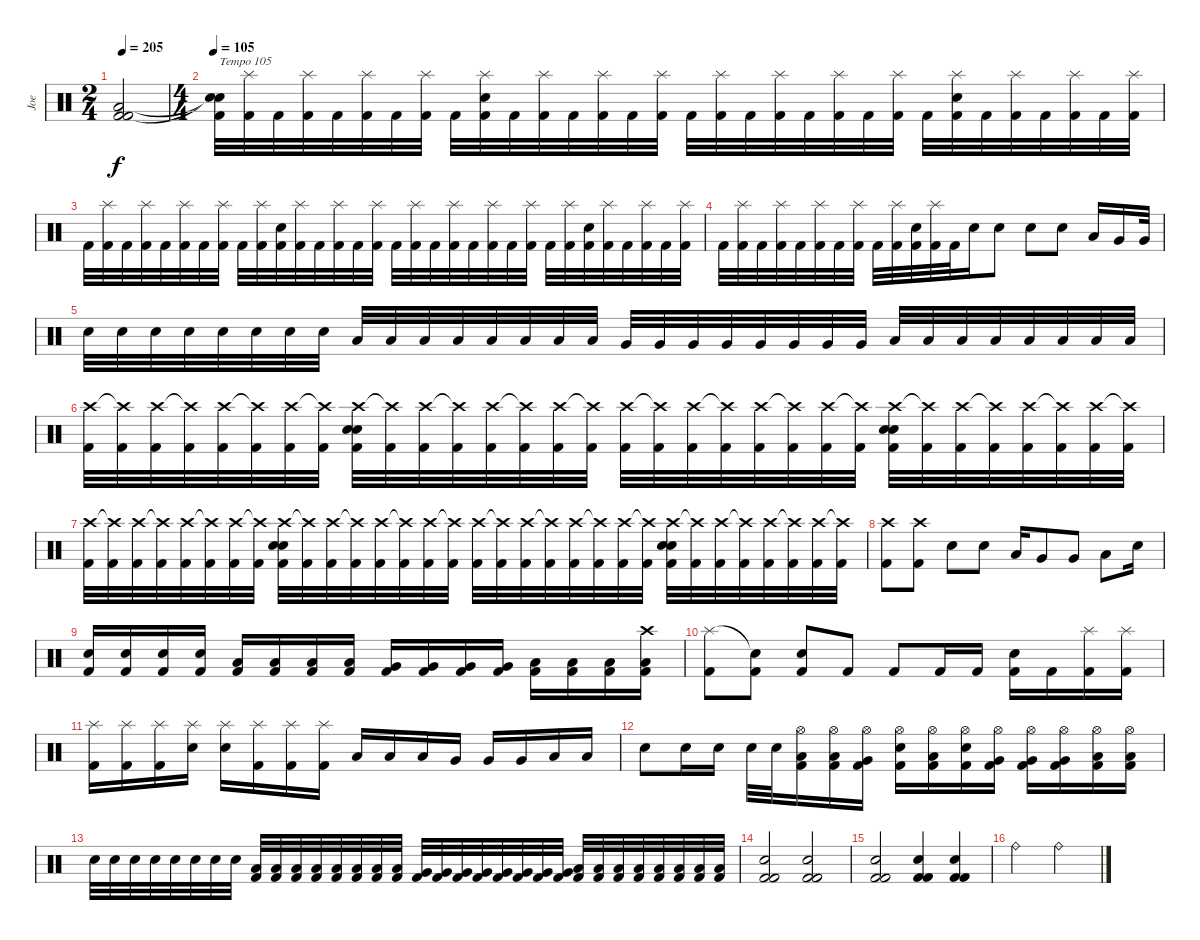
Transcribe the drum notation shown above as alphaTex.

\track ("Joe" "Joe") {instrument percussion}
\staff {score}
\articulation defaults
\ts (2 4)
\tempo 205
\clef neutral
\ks c
("Kick (hit) 2" "Kick (hit) 2" "Low Floor Tom (hit)").2{dy f} |
\ts (4 4)
\tempo 105
("Kick (hit) 2" "Snare (hit)"{t} "Snare (hit)"{t}).32{txt "Tempo 105"} ("Kick (hit) 2" "Splash (hit)").32 "Kick (hit) 2".32 ("Kick (hit) 2" "Splash (hit)").32 "Kick (hit) 2".32 ("Kick (hit) 2" "Splash (hit)").32 "Kick (hit) 2".32 ("Kick (hit) 2" "Splash (hit)").32 "Kick (hit) 2".32 ("Kick (hit) 2" "Splash (hit)" "Electric Snare (hit)").32 "Kick (hit) 2".32 ("Kick (hit) 2" "Splash (hit)").32 "Kick (hit) 2".32 ("Kick (hit) 2" "Splash (hit)").32 "Kick (hit) 2".32 ("Kick (hit) 2" "Splash (hit)").32 "Kick (hit) 2".32 ("Kick (hit) 2" "Splash (hit)").32 "Kick (hit) 2".32 ("Kick (hit) 2" "Splash (hit)").32 "Kick (hit) 2".32 ("Kick (hit) 2" "Splash (hit)").32 "Kick (hit) 2".32 ("Kick (hit) 2" "Splash (hit)").32 "Kick (hit) 2".32 ("Kick (hit) 2" "Splash (hit)" "Electric Snare (hit)").32 "Kick (hit) 2".32 ("Kick (hit) 2" "Splash (hit)").32 "Kick (hit) 2".32 ("Kick (hit) 2" "Splash (hit)").32 "Kick (hit) 2".32 ("Kick (hit) 2" "Splash (hit)").32 |
"Kick (hit) 2".32 ("Kick (hit) 2" "Splash (hit)").32 "Kick (hit) 2".32 ("Kick (hit) 2" "Splash (hit)").32 "Kick (hit) 2".32 ("Kick (hit) 2" "Splash (hit)").32 "Kick (hit) 2".32 ("Kick (hit) 2" "Splash (hit)").32 "Kick (hit) 2".32 ("Kick (hit) 2" "Splash (hit)").32 ("Kick (hit) 2" "Electric Snare (hit)").32 ("Kick (hit) 2" "Splash (hit)").32 "Kick (hit) 2".32 ("Kick (hit) 2" "Splash (hit)").32 "Kick (hit) 2".32 ("Kick (hit) 2" "Splash (hit)").32 "Kick (hit) 2".32 ("Kick (hit) 2" "Splash (hit)").32 "Kick (hit) 2".32 ("Kick (hit) 2" "Splash (hit)").32 "Kick (hit) 2".32 ("Kick (hit) 2" "Splash (hit)").32 "Kick (hit) 2".32 ("Kick (hit) 2" "Splash (hit)").32 "Kick (hit) 2".32 ("Kick (hit) 2" "Splash (hit)").32 ("Kick (hit) 2" "Electric Snare (hit)").32 ("Kick (hit) 2" "Splash (hit)").32 "Kick (hit) 2".32 ("Kick (hit) 2" "Splash (hit)").32 "Kick (hit) 2".32 ("Kick (hit) 2" "Splash (hit)").32 |
"Kick (hit) 2".32 ("Kick (hit) 2" "Splash (hit)").32 "Kick (hit) 2".32 ("Kick (hit) 2" "Splash (hit)").32 "Kick (hit) 2".32 ("Kick (hit) 2" "Splash (hit)").32 "Kick (hit) 2".32 ("Kick (hit) 2" "Splash (hit)").32 "Kick (hit) 2".32 ("Kick (hit) 2" "Splash (hit)").32 ("Kick (hit) 2" "Electric Snare (hit)").32 ("Kick (hit) 2" "Splash (hit)").32 "Kick (hit) 2".32 "Electric Snare (hit)".16 "Electric Snare (hit)".8 "Electric Snare (hit)".8 "Electric Snare (hit)".8 "Low Floor Tom (hit)".16 "Very Low Tom (hit)".16 "Very Low Tom (hit)".32 |
"Electric Snare (hit)".32 "Electric Snare (hit)".32 "Electric Snare (hit)".32 "Electric Snare (hit)".32 "Electric Snare (hit)".32 "Electric Snare (hit)".32 "Electric Snare (hit)".32 "Electric Snare (hit)".32 "Low Floor Tom (hit)".32 "Low Floor Tom (hit)".32 "Low Floor Tom (hit)".32 "Low Floor Tom (hit)".32 "Low Floor Tom (hit)".32 "Low Floor Tom (hit)".32 "Low Floor Tom (hit)".32 "Low Floor Tom (hit)".32 "Very Low Tom (hit)".32 "Very Low Tom (hit)".32 "Very Low Tom (hit)".32 "Very Low Tom (hit)".32 "Very Low Tom (hit)".32 "Very Low Tom (hit)".32 "Very Low Tom (hit)".32 "Very Low Tom (hit)".32 "Low Floor Tom (hit)".32 "Low Floor Tom (hit)".32 "Low Floor Tom (hit)".32 "Low Floor Tom (hit)".32 "Low Floor Tom (hit)".32 "Low Floor Tom (hit)".32 "Low Floor Tom (hit)".32 "Low Floor Tom (hit)".32 |
("Kick (hit) 2" "Crash high (hit)").32 ("Kick (hit) 2" "Crash high (hit)"{t}).32 ("Kick (hit) 2" "Crash high (hit)").32 ("Kick (hit) 2" "Crash high (hit)"{t}).32 ("Kick (hit) 2" "Crash high (hit)").32 ("Kick (hit) 2" "Crash high (hit)"{t}).32 ("Kick (hit) 2" "Crash high (hit)").32 ("Kick (hit) 2" "Crash high (hit)"{t}).32 ("Kick (hit) 2" "Crash high (hit)" "Electric Snare (hit)" "Electric Snare (hit)").32 ("Kick (hit) 2" "Crash high (hit)"{t}).32 ("Kick (hit) 2" "Crash high (hit)").32 ("Kick (hit) 2" "Crash high (hit)"{t}).32 ("Kick (hit) 2" "Crash high (hit)").32 ("Kick (hit) 2" "Crash high (hit)"{t}).32 ("Kick (hit) 2" "Crash high (hit)").32 ("Kick (hit) 2" "Crash high (hit)"{t}).32 ("Kick (hit) 2" "Crash high (hit)").32 ("Kick (hit) 2" "Crash high (hit)"{t}).32 ("Kick (hit) 2" "Crash high (hit)").32 ("Kick (hit) 2" "Crash high (hit)"{t}).32 ("Kick (hit) 2" "Crash high (hit)").32 ("Kick (hit) 2" "Crash high (hit)"{t}).32 ("Kick (hit) 2" "Crash high (hit)").32 ("Kick (hit) 2" "Crash high (hit)"{t}).32 ("Kick (hit) 2" "Crash high (hit)" "Electric Snare (hit)" "Electric Snare (hit)").32 ("Kick (hit) 2" "Crash high (hit)"{t}).32 ("Kick (hit) 2" "Crash high (hit)").32 ("Kick (hit) 2" "Crash high (hit)"{t}).32 ("Kick (hit) 2" "Crash high (hit)").32 ("Kick (hit) 2" "Crash high (hit)"{t}).32 ("Kick (hit) 2" "Crash high (hit)").32 ("Kick (hit) 2" "Crash high (hit)"{t}).32 |
("Kick (hit) 2" "Crash high (hit)").32 ("Kick (hit) 2" "Crash high (hit)"{t}).32 ("Kick (hit) 2" "Crash high (hit)").32 ("Kick (hit) 2" "Crash high (hit)"{t}).32 ("Kick (hit) 2" "Crash high (hit)").32 ("Kick (hit) 2" "Crash high (hit)"{t}).32 ("Kick (hit) 2" "Crash high (hit)").32 ("Kick (hit) 2" "Crash high (hit)"{t}).32 ("Kick (hit) 2" "Crash high (hit)" "Electric Snare (hit)" "Electric Snare (hit)").32 ("Kick (hit) 2" "Crash high (hit)"{t}).32 ("Kick (hit) 2" "Crash high (hit)").32 ("Kick (hit) 2" "Crash high (hit)"{t}).32 ("Kick (hit) 2" "Crash high (hit)").32 ("Kick (hit) 2" "Crash high (hit)"{t}).32 ("Kick (hit) 2" "Crash high (hit)").32 ("Kick (hit) 2" "Crash high (hit)"{t}).32 ("Kick (hit) 2" "Crash high (hit)").32 ("Kick (hit) 2" "Crash high (hit)"{t}).32 ("Kick (hit) 2" "Crash high (hit)").32 ("Kick (hit) 2" "Crash high (hit)"{t}).32 ("Kick (hit) 2" "Crash high (hit)").32 ("Kick (hit) 2" "Crash high (hit)"{t}).32 ("Kick (hit) 2" "Crash high (hit)").32 ("Kick (hit) 2" "Crash high (hit)"{t}).32 ("Kick (hit) 2" "Crash high (hit)" "Electric Snare (hit)" "Electric Snare (hit)").32 ("Kick (hit) 2" "Crash high (hit)"{t}).32 ("Kick (hit) 2" "Crash high (hit)").32 ("Kick (hit) 2" "Crash high (hit)"{t}).32 ("Kick (hit) 2" "Crash high (hit)").32 ("Kick (hit) 2" "Crash high (hit)"{t}).32 ("Kick (hit) 2" "Crash high (hit)").32 ("Kick (hit) 2" "Crash high (hit)"{t}).32 |
("Kick (hit) 2" "Crash high (hit)").8 ("Kick (hit) 2" "Crash high (hit)").8 "Electric Snare (hit)".8 "Electric Snare (hit)".8 "Low Floor Tom (hit)".16 "Very Low Tom (hit)".8 "Very Low Tom (hit)".8 "Low Floor Tom (hit)".8 "Electric Snare (hit)".16 |
("Kick (hit) 2" "Electric Snare (hit)").16 ("Kick (hit) 2" "Electric Snare (hit)").16 ("Kick (hit) 2" "Electric Snare (hit)").16 ("Kick (hit) 2" "Electric Snare (hit)").16 ("Kick (hit) 2" "Low Floor Tom (hit)").16 ("Kick (hit) 2" "Low Floor Tom (hit)").16 ("Kick (hit) 2" "Low Floor Tom (hit)").16 ("Kick (hit) 2" "Low Floor Tom (hit)").16 ("Kick (hit) 2" "Very Low Tom (hit)").16 ("Kick (hit) 2" "Very Low Tom (hit)").16 ("Kick (hit) 2" "Very Low Tom (hit)").16 ("Kick (hit) 2" "Very Low Tom (hit)").16 ("Kick (hit) 2" "Low Floor Tom (hit)").16 ("Kick (hit) 2" "Low Floor Tom (hit)").16 ("Kick (hit) 2" "Low Floor Tom (hit)").16 ("Kick (hit) 2" "Crash high (hit)" "Low Floor Tom (hit)").16 |
("Kick (hit) 2" "Splash (hit)").8 ("Kick (hit) 2" "Snare (hit)"{t}).8 ("Kick (hit) 2" "Electric Snare (hit)").8 "Kick (hit) 2".8 "Kick (hit) 2".8 "Kick (hit) 2".16 "Kick (hit) 2".16 ("Kick (hit) 2" "Electric Snare (hit)").16 "Kick (hit) 2".16 ("Kick (hit) 2" "Splash (hit)").16 ("Kick (hit) 2" "Splash (hit)").16 |
("Kick (hit) 2" "Splash (hit)").16 ("Kick (hit) 2" "Splash (hit)").16 ("Kick (hit) 2" "Splash (hit)").16 ("Splash (hit)" "Electric Snare (hit)").16 ("Splash (hit)" "Electric Snare (hit)").16 ("Kick (hit) 2" "Splash (hit)").16 ("Kick (hit) 2" "Splash (hit)").16 ("Kick (hit) 2" "Splash (hit)").16 "Low Floor Tom (hit)".16 "Low Floor Tom (hit)".16 "Low Floor Tom (hit)".16 "Very Low Tom (hit)".16 "Very Low Tom (hit)".16 "Very Low Tom (hit)".16 "Low Floor Tom (hit)".16 "Low Floor Tom (hit)".16 |
"Electric Snare (hit)".8 "Electric Snare (hit)".16 "Electric Snare (hit)".16 "Electric Snare (hit)".32 "Electric Snare (hit)".32 ("Kick (hit) 2" "Hi-Hat (open)" "Low Floor Tom (hit)").16 ("Kick (hit) 2" "Hi-Hat (open)" "Low Floor Tom (hit)").16 ("Kick (hit) 2" "Hi-Hat (open)" "Very Low Tom (hit)").16 ("Kick (hit) 2" "Hi-Hat (open)" "Electric Snare (hit)").16 ("Kick (hit) 2" "Hi-Hat (open)" "Low Floor Tom (hit)").16 ("Kick (hit) 2" "Hi-Hat (open)" "Electric Snare (hit)").16 ("Kick (hit) 2" "Hi-Hat (open)" "Very Low Tom (hit)").16 ("Kick (hit) 2" "Hi-Hat (open)" "Very Low Tom (hit)").16 ("Kick (hit) 2" "Hi-Hat (open)" "Very Low Tom (hit)").16 ("Kick (hit) 2" "Hi-Hat (open)" "Low Floor Tom (hit)").16 ("Kick (hit) 2" "Hi-Hat (open)" "Low Floor Tom (hit)").16 |
"Electric Snare (hit)".32 "Electric Snare (hit)".32 "Electric Snare (hit)".32 "Electric Snare (hit)".32 "Electric Snare (hit)".32 "Electric Snare (hit)".32 "Electric Snare (hit)".32 "Electric Snare (hit)".32 ("Kick (hit) 2" "Low Floor Tom (hit)").32 ("Kick (hit) 2" "Low Floor Tom (hit)").32 ("Kick (hit) 2" "Low Floor Tom (hit)").32 ("Kick (hit) 2" "Low Floor Tom (hit)").32 ("Kick (hit) 2" "Low Floor Tom (hit)").32 ("Kick (hit) 2" "Low Floor Tom (hit)").32 ("Kick (hit) 2" "Low Floor Tom (hit)").32 ("Kick (hit) 2" "Low Floor Tom (hit)").32 ("Kick (hit) 2" "Very Low Tom (hit)").32 ("Kick (hit) 2" "Very Low Tom (hit)").32 ("Kick (hit) 2" "Very Low Tom (hit)").32 ("Kick (hit) 2" "Very Low Tom (hit)").32 ("Kick (hit) 2" "Very Low Tom (hit)").32 ("Kick (hit) 2" "Very Low Tom (hit)").32 ("Kick (hit) 2" "Very Low Tom (hit)").32 ("Kick (hit) 2" "Very Low Tom (hit)").32 ("Kick (hit) 2" "Low Floor Tom (hit)").32 ("Kick (hit) 2" "Low Floor Tom (hit)").32 ("Kick (hit) 2" "Low Floor Tom (hit)").32 ("Kick (hit) 2" "Low Floor Tom (hit)").32 ("Kick (hit) 2" "Low Floor Tom (hit)").32 ("Kick (hit) 2" "Low Floor Tom (hit)").32 ("Kick (hit) 2" "Low Floor Tom (hit)").32 ("Kick (hit) 2" "Low Floor Tom (hit)").32 |
("Kick (hit) 2" "Kick (hit) 2" "Electric Snare (hit)").2 ("Kick (hit) 2" "Kick (hit) 2" "Electric Snare (hit)").2 |
("Kick (hit) 2" "Kick (hit) 2" "Electric Snare (hit)").2 ("Kick (hit) 2" "Kick (hit) 2" "Electric Snare (hit)").4 ("Kick (hit) 2" "Kick (hit) 2" "Electric Snare (hit)").4 |
"Ride (bell)".2 "Ride (bell)".2
